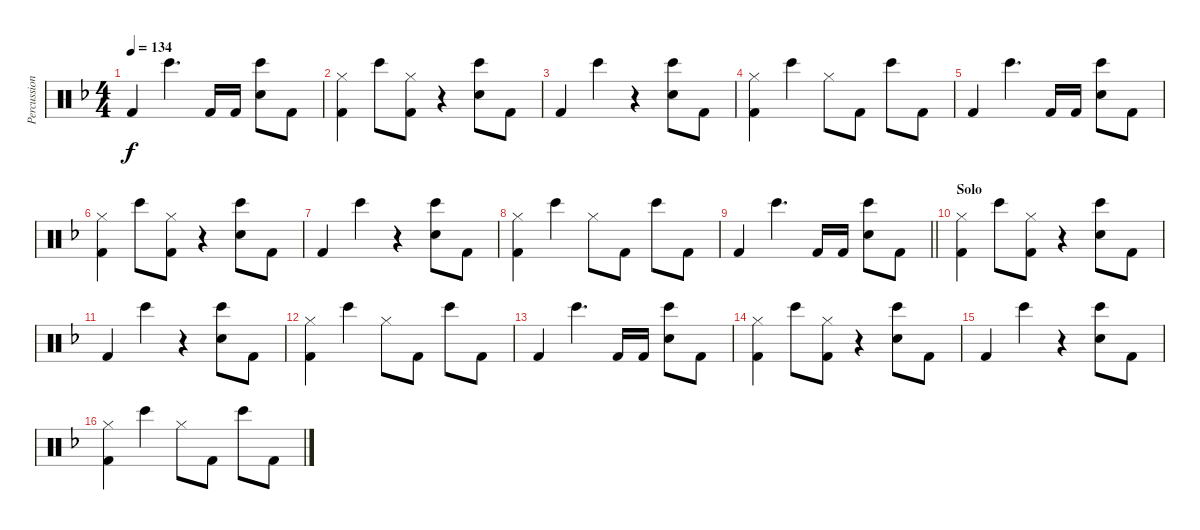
\track ("Percussion" "Percussion") {instrument percussion}
\staff {score}
\articulation defaults
\ts (4 4)
\tempo 134
\clef neutral
\ks f "Kick (hit) 2".4{dy f} "Bongo High (hit)".4{d} "Kick (hit) 2".16 "Kick (hit) 2".16
("Hand Clap (hit)" "Bongo High (hit)").8 "Kick (hit) 2".8 |
("Hi-Hat (closed)" "Kick (hit) 2").4 "Bongo High (hit)".8 ("Hi-Hat (closed)" "Kick (hit) 2").8 r.4 ("Hand Clap (hit)" "Bongo High (hit)").8 "Kick (hit) 2".8 |
"Kick (hit) 2".4 "Bongo High (hit)".4 r.4 ("Hand Clap (hit)" "Bongo High (hit)").8 "Kick (hit) 2".8 |
("Hi-Hat (closed)" "Kick (hit) 2").4 "Bongo High (hit)".4 "Hi-Hat (closed)".8 "Kick (hit) 2".8 "Bongo High (hit)".8 "Kick (hit) 2".8 |
"Kick (hit) 2".4 "Bongo High (hit)".4{d} "Kick (hit) 2".16 "Kick (hit) 2".16 ("Hand Clap (hit)" "Bongo High (hit)").8 "Kick (hit) 2".8 |
("Hi-Hat (closed)" "Kick (hit) 2").4 "Bongo High (hit)".8 ("Hi-Hat (closed)" "Kick (hit) 2").8 r.4 ("Hand Clap (hit)" "Bongo High (hit)").8 "Kick (hit) 2".8 |
"Kick (hit) 2".4 "Bongo High (hit)".4 r.4 ("Hand Clap (hit)" "Bongo High (hit)").8 "Kick (hit) 2".8 |
("Hi-Hat (closed)" "Kick (hit) 2").4 "Bongo High (hit)".4 "Hi-Hat (closed)".8 "Kick (hit) 2".8 "Bongo High (hit)".8 "Kick (hit) 2".8 |
\barLineRight lightlight "Kick (hit) 2".4 "Bongo High (hit)".4{d} "Kick (hit) 2".16 "Kick (hit) 2".16
("Hand Clap (hit)" "Bongo High (hit)").8 "Kick (hit) 2".8 |
\section ("" "Solo")
("Hi-Hat (closed)" "Kick (hit) 2").4 "Bongo High (hit)".8 ("Hi-Hat (closed)" "Kick (hit) 2").8 r.4 ("Hand Clap (hit)" "Bongo High (hit)").8 "Kick (hit) 2".8 |
"Kick (hit) 2".4 "Bongo High (hit)".4 r.4 ("Hand Clap (hit)" "Bongo High (hit)").8 "Kick (hit) 2".8 |
("Hi-Hat (closed)" "Kick (hit) 2").4 "Bongo High (hit)".4 "Hi-Hat (closed)".8 "Kick (hit) 2".8 "Bongo High (hit)".8 "Kick (hit) 2".8 |
"Kick (hit) 2".4 "Bongo High (hit)".4{d} "Kick (hit) 2".16 "Kick (hit) 2".16 ("Hand Clap (hit)" "Bongo High (hit)").8 "Kick (hit) 2".8 |
("Hi-Hat (closed)" "Kick (hit) 2").4 "Bongo High (hit)".8 ("Hi-Hat (closed)" "Kick (hit) 2").8 r.4 ("Hand Clap (hit)" "Bongo High (hit)").8 "Kick (hit) 2".8 |
"Kick (hit) 2".4 "Bongo High (hit)".4 r.4 ("Hand Clap (hit)" "Bongo High (hit)").8 "Kick (hit) 2".8 |
("Hi-Hat (closed)" "Kick (hit) 2").4 "Bongo High (hit)".4 "Hi-Hat (closed)".8 "Kick (hit) 2".8 "Bongo High (hit)".8 "Kick (hit) 2".8
